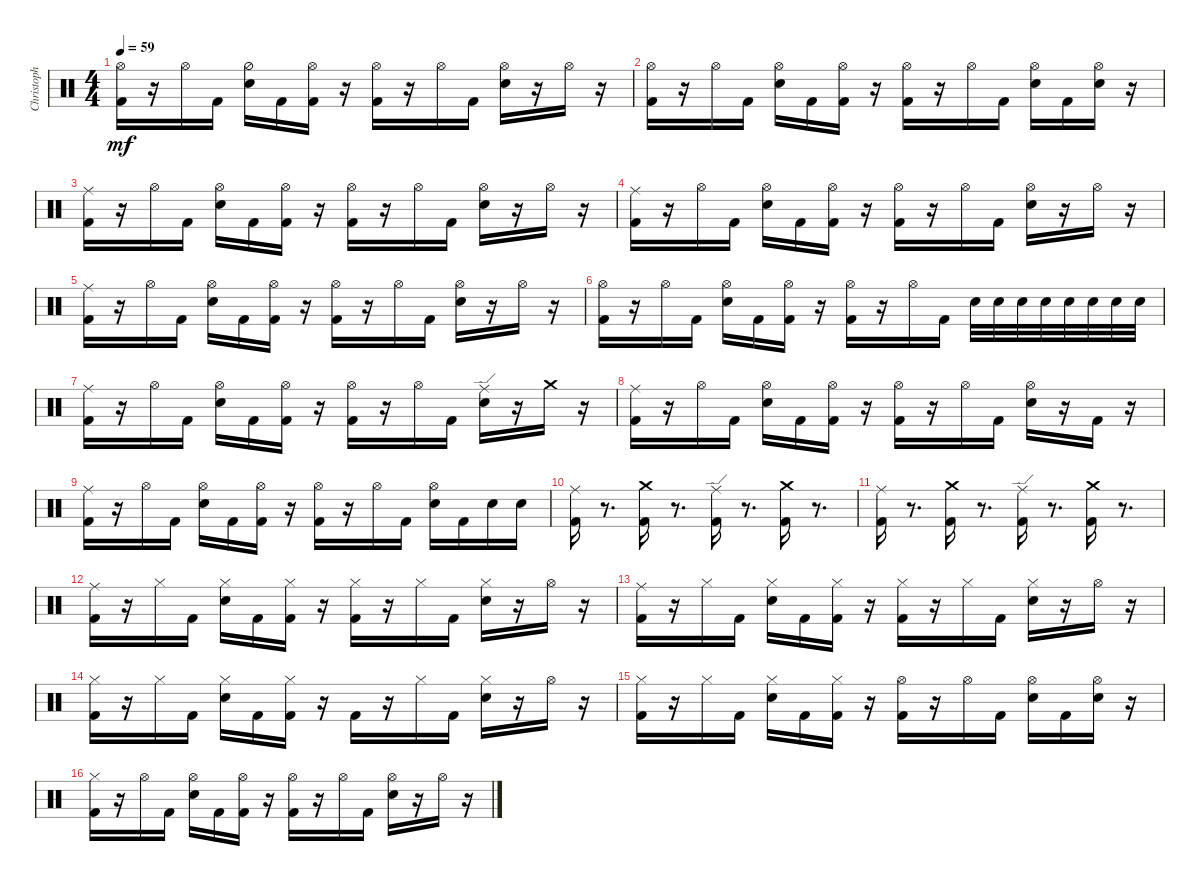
\track ("Christoph Schneider " "Christoph ") {instrument percussion}
\staff {score}
\articulation defaults
\ts (4 4)
\tempo 59
\clef neutral
\ks c
("Kick (hit) 2" "Hi-Hat (open)").16{dy mf} r.16 "Hi-Hat (open)".16 "Kick (hit) 2".16 ("Snare (hit) 2" "Hi-Hat (half)").16 "Kick (hit) 2".16 ("Kick (hit) 2" "Hi-Hat (open)").16 r.16 ("Kick (hit) 2" "Hi-Hat (open)").16 r.16 "Hi-Hat (open)".16 "Kick (hit) 2".16 ("Snare (hit) 2" "Hi-Hat (open)").16 r.16 "Hi-Hat (open)".16 r.16 |
("Kick (hit) 2" "Hi-Hat (open)").16 r.16 "Hi-Hat (open)".16 "Kick (hit) 2".16 ("Snare (hit) 2" "Hi-Hat (open)").16 "Kick (hit) 2".16 ("Kick (hit) 2" "Hi-Hat (open)").16 r.16 ("Kick (hit) 2" "Hi-Hat (open)").16 r.16 "Hi-Hat (open)".16 "Kick (hit) 2".16 ("Snare (hit) 2" "Hi-Hat (open)").16 "Kick (hit) 2".16 ("Snare (hit) 2" "Hi-Hat (open)").16 r.16 |
("Kick (hit) 2" "Ride (middle)").16 r.16 "Hi-Hat (open)".16 "Kick (hit) 2".16 ("Snare (hit) 2" "Hi-Hat (open)").16 "Kick (hit) 2".16 ("Kick (hit) 2" "Hi-Hat (open)").16 r.16 ("Kick (hit) 2" "Hi-Hat (open)").16 r.16 "Hi-Hat (open)".16 "Kick (hit) 2".16 ("Snare (hit) 2" "Hi-Hat (open)").16 r.16 "Hi-Hat (open)".16 r.16 |
("Kick (hit) 2" "Ride (middle)").16 r.16 "Hi-Hat (open)".16 "Kick (hit) 2".16 ("Snare (hit) 2" "Hi-Hat (open)").16 "Kick (hit) 2".16 ("Kick (hit) 2" "Hi-Hat (open)").16 r.16 ("Kick (hit) 2" "Hi-Hat (open)").16 r.16 "Hi-Hat (open)".16 "Kick (hit) 2".16 ("Snare (hit) 2" "Hi-Hat (open)").16 r.16 "Hi-Hat (open)".16 r.16 |
("Kick (hit) 2" "Ride (middle)").16 r.16 "Hi-Hat (open)".16 "Kick (hit) 2".16 ("Snare (hit) 2" "Hi-Hat (open)").16 "Kick (hit) 2".16 ("Kick (hit) 2" "Hi-Hat (open)").16 r.16 ("Kick (hit) 2" "Hi-Hat (open)").16 r.16 "Hi-Hat (open)".16 "Kick (hit) 2".16 ("Snare (hit) 2" "Hi-Hat (open)").16 r.16 "Hi-Hat (open)".16 r.16 |
("Kick (hit) 2" "Hi-Hat (open)").16 r.16 "Hi-Hat (open)".16 "Kick (hit) 2".16 ("Snare (hit) 2" "Hi-Hat (open)").16 "Kick (hit) 2".16 ("Kick (hit) 2" "Hi-Hat (open)").16 r.16 ("Hi-Hat (open)" "Kick (hit) 2").16 r.16 "Hi-Hat (open)".16 "Kick (hit) 2".16 "Snare (hit) 2".32 "Snare (hit) 2".32 "Snare (hit) 2".32 "Snare (hit) 2".32 "Snare (hit) 2".32 "Snare (hit) 2".32 "Snare (hit) 2".32 "Snare (hit) 2".32 |
("Kick (hit) 2" "Ride (middle)").16 r.16 "Hi-Hat (open)".16 "Kick (hit) 2".16 ("Snare (hit) 2" "Hi-Hat (open)").16 "Kick (hit) 2".16 ("Kick (hit) 2" "Hi-Hat (open)").16 r.16 ("Kick (hit) 2" "Hi-Hat (open)").16 r.16 "Hi-Hat (open)".16 "Kick (hit) 2".16 ("Snare (hit) 2" "Ride (edge)").16 r.16 "Crash medium (hit)".16 r.16 |
("Kick (hit) 2" "Ride (middle)").16 r.16 "Hi-Hat (open)".16 "Kick (hit) 2".16 ("Snare (hit) 2" "Hi-Hat (open)").16 "Kick (hit) 2".16 ("Kick (hit) 2" "Hi-Hat (open)").16 r.16 ("Kick (hit) 2" "Hi-Hat (open)").16 r.16 "Hi-Hat (open)".16 "Kick (hit) 2".16 ("Snare (hit) 2" "Hi-Hat (open)").16 r.16 "Kick (hit) 2".16 r.16 |
("Kick (hit) 2" "Ride (middle)").16 r.16 "Hi-Hat (open)".16 "Kick (hit) 2".16 ("Snare (hit) 2" "Hi-Hat (open)").16 "Kick (hit) 2".16 ("Kick (hit) 2" "Hi-Hat (open)").16 r.16 ("Kick (hit) 2" "Hi-Hat (open)").16 r.16 "Hi-Hat (open)".16 "Kick (hit) 2".16 ("Snare (hit) 2" "Hi-Hat (open)").16 "Kick (hit) 2".16 "Snare (hit) 2".16 "Snare (hit) 2".16 |
("Kick (hit) 2" "Ride (middle)").16 r.8{d} ("Kick (hit) 2" "Crash medium (hit)").16 r.8{d} ("Kick (hit) 2" "Ride (edge)").16 r.8{d} ("Kick (hit) 2" "Crash medium (hit)").16 r.8{d} |
("Kick (hit) 2" "Ride (middle)").16 r.8{d} ("Kick (hit) 2" "Crash medium (hit)").16 r.8{d} ("Kick (hit) 2" "Ride (edge)").16 r.8{d} ("Kick (hit) 2" "Crash medium (hit)").16 r.8{d} |
("Kick (hit) 2" "Ride (middle)").16 r.16 "Hi-Hat (closed)".16 "Kick (hit) 2".16 ("Snare (hit) 2" "Hi-Hat (closed)").16 "Kick (hit) 2".16 ("Kick (hit) 2" "Hi-Hat (closed)").16 r.16 ("Kick (hit) 2" "Hi-Hat (closed)").16 r.16 "Hi-Hat (closed)".16 "Kick (hit) 2".16 ("Snare (hit) 2" "Hi-Hat (closed)").16 r.16 "Hi-Hat (open)".16 r.16 |
("Kick (hit) 2" "Ride (middle)").16 r.16 "Hi-Hat (closed)".16 "Kick (hit) 2".16 ("Snare (hit) 2" "Hi-Hat (closed)").16 "Kick (hit) 2".16 ("Kick (hit) 2" "Hi-Hat (closed)").16 r.16 ("Kick (hit) 2" "Hi-Hat (closed)").16 r.16 "Hi-Hat (closed)".16 "Kick (hit) 2".16 ("Snare (hit) 2" "Hi-Hat (closed)").16 r.16 "Hi-Hat (open)".16 r.16 |
("Kick (hit) 2" "Hi-Hat (closed)").16 r.16 "Hi-Hat (closed)".16 "Kick (hit) 2".16 ("Snare (hit) 2" "Hi-Hat (closed)").16 "Kick (hit) 2".16 ("Kick (hit) 2" "Hi-Hat (closed)").16 r.16 "Kick (hit) 2".16 r.16 "Hi-Hat (closed)".16 "Kick (hit) 2".16 ("Snare (hit) 2" "Hi-Hat (closed)").16 r.16 "Hi-Hat (open)".16 r.16 |
("Kick (hit) 2" "Hi-Hat (closed)").16 r.16 "Hi-Hat (closed)".16 "Kick (hit) 2".16 ("Snare (hit) 2" "Hi-Hat (closed)").16 "Kick (hit) 2".16 ("Kick (hit) 2" "Hi-Hat (closed)").16 r.16 ("Kick (hit) 2" "Hi-Hat (open)").16 r.16 "Hi-Hat (open)".16 "Kick (hit) 2".16 ("Snare (hit) 2" "Hi-Hat (open)").16 "Kick (hit) 2".16 ("Snare (hit) 2" "Hi-Hat (open)").16 r.16 |
("Kick (hit) 2" "Hi-Hat (closed)").16 r.16 "Hi-Hat (open)".16 "Kick (hit) 2".16 ("Snare (hit) 2" "Hi-Hat (open)").16 "Kick (hit) 2".16 ("Kick (hit) 2" "Hi-Hat (open)").16 r.16 ("Kick (hit) 2" "Hi-Hat (open)").16 r.16 "Hi-Hat (open)".16 "Kick (hit) 2".16 ("Snare (hit) 2" "Hi-Hat (open)").16 r.16 "Hi-Hat (open)".16 r.16
